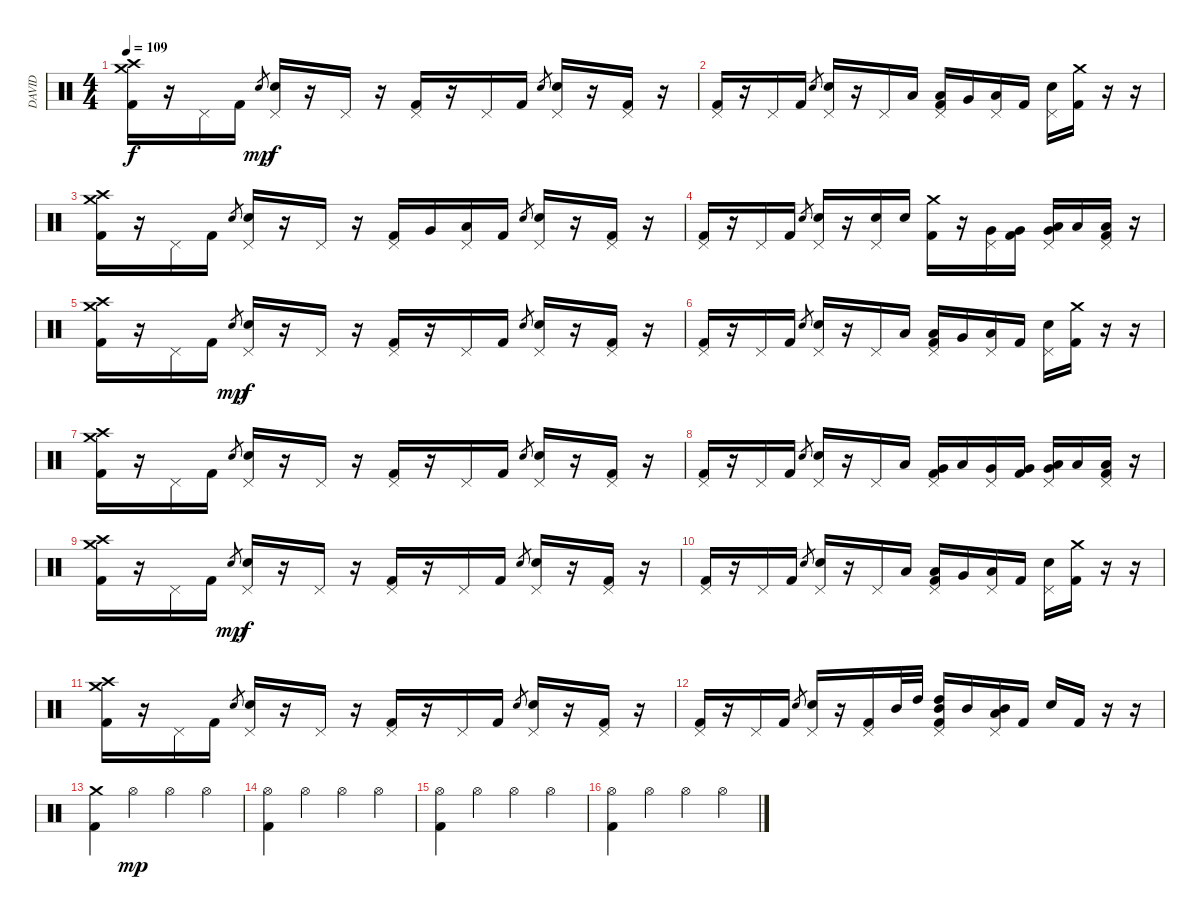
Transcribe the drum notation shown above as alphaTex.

\track ("DAVID" "DAVID") {instrument percussion}
\staff {score}
\articulation defaults
\ts (4 4)
\tempo 109
\clef neutral
\ks c
("Crash medium (hit)" "Crash high (hit)" "Kick (hit) 2").16{dy f} r.16 "Pedal Hi-Hat (hit)".16 "Kick (hit) 2".16 "Snare (hit) 2".8{gr dy mp} ("Pedal Hi-Hat (hit)" "Snare (hit) 2").16{dy f} r.16 "Pedal Hi-Hat (hit)".16 r.16 ("Pedal Hi-Hat (hit)" "Kick (hit) 2").16 r.16 "Pedal Hi-Hat (hit)".16 "Kick (hit) 2".16 "Snare (hit) 2".8{gr} ("Pedal Hi-Hat (hit)" "Snare (hit) 2").16 r.16 ("Pedal Hi-Hat (hit)" "Kick (hit) 2").16 r.16 |
("Pedal Hi-Hat (hit)" "Kick (hit) 2").16 r.16 "Pedal Hi-Hat (hit)".16 "Kick (hit) 2".16 "Snare (hit) 2".8{gr} ("Pedal Hi-Hat (hit)" "Snare (hit) 2").16 r.16 "Pedal Hi-Hat (hit)".16 "Low Tom (hit)".16 ("Pedal Hi-Hat (hit)" "Low Tom (hit)" "Kick (hit) 2").16 "Very Low Tom (hit)".16 ("Pedal Hi-Hat (hit)" "Low Floor Tom (hit)").16 "Kick (hit) 2".16 ("Pedal Hi-Hat (hit)" "Snare (hit) 2").16 ("Crash medium (hit)" "Kick (hit) 2").16 r.16 r.16 |
("Crash medium (hit)" "Crash high (hit)" "Kick (hit) 2").16 r.16 "Pedal Hi-Hat (hit)".16 "Kick (hit) 2".16 "Snare (hit) 2".8{gr} ("Pedal Hi-Hat (hit)" "Snare (hit) 2").16 r.16 "Pedal Hi-Hat (hit)".16 r.16 ("Pedal Hi-Hat (hit)" "Kick (hit) 2").16 "Very Low Tom (hit)".16 ("Pedal Hi-Hat (hit)" "Low Floor Tom (hit)").16 "Kick (hit) 2".16 "Snare (hit) 2".8{gr} ("Pedal Hi-Hat (hit)" "Snare (hit) 2").16 r.16 ("Pedal Hi-Hat (hit)" "Kick (hit) 2").16 r.16 |
("Pedal Hi-Hat (hit)" "Kick (hit) 2").16 r.16 "Pedal Hi-Hat (hit)".16 "Kick (hit) 2".16 "Snare (hit) 2".8{gr} ("Pedal Hi-Hat (hit)" "Snare (hit) 2").16 r.16 ("Pedal Hi-Hat (hit)" "Snare (hit) 2").16 "Snare (hit) 2".16 ("Crash medium (hit)" "Kick (hit) 2").16 r.16 ("Pedal Hi-Hat (hit)" "Very Low Tom (hit)").16 ("Very Low Tom (hit)" "Kick (hit) 2").16 ("Pedal Hi-Hat (hit)" "Very Low Tom (hit)" "Low Floor Tom (hit)").16 "Low Floor Tom (hit)".16 ("Pedal Hi-Hat (hit)" "Low Floor Tom (hit)" "Kick (hit) 2").16 r.16 |
("Crash medium (hit)" "Crash high (hit)" "Kick (hit) 2").16 r.16 "Pedal Hi-Hat (hit)".16 "Kick (hit) 2".16 "Snare (hit) 2".8{gr dy mp} ("Pedal Hi-Hat (hit)" "Snare (hit) 2").16{dy f} r.16 "Pedal Hi-Hat (hit)".16 r.16 ("Pedal Hi-Hat (hit)" "Kick (hit) 2").16 r.16 "Pedal Hi-Hat (hit)".16 "Kick (hit) 2".16 "Snare (hit) 2".8{gr} ("Pedal Hi-Hat (hit)" "Snare (hit) 2").16 r.16 ("Pedal Hi-Hat (hit)" "Kick (hit) 2").16 r.16 |
("Pedal Hi-Hat (hit)" "Kick (hit) 2").16 r.16 "Pedal Hi-Hat (hit)".16 "Kick (hit) 2".16 "Snare (hit) 2".8{gr} ("Pedal Hi-Hat (hit)" "Snare (hit) 2").16 r.16 "Pedal Hi-Hat (hit)".16 "Low Tom (hit)".16 ("Pedal Hi-Hat (hit)" "Low Tom (hit)" "Kick (hit) 2").16 "Very Low Tom (hit)".16 ("Pedal Hi-Hat (hit)" "Low Floor Tom (hit)").16 "Kick (hit) 2".16 ("Pedal Hi-Hat (hit)" "Snare (hit) 2").16 ("Crash medium (hit)" "Kick (hit) 2").16 r.16 r.16 |
("Crash medium (hit)" "Crash high (hit)" "Kick (hit) 2").16 r.16 "Pedal Hi-Hat (hit)".16 "Kick (hit) 2".16 "Snare (hit) 2".8{gr} ("Pedal Hi-Hat (hit)" "Snare (hit) 2").16 r.16 "Pedal Hi-Hat (hit)".16 r.16 ("Pedal Hi-Hat (hit)" "Kick (hit) 2").16 r.16 "Pedal Hi-Hat (hit)".16 "Kick (hit) 2".16 "Snare (hit) 2".8{gr} ("Pedal Hi-Hat (hit)" "Snare (hit) 2").16 r.16 ("Pedal Hi-Hat (hit)" "Kick (hit) 2").16 r.16 |
("Pedal Hi-Hat (hit)" "Kick (hit) 2").16 r.16 "Pedal Hi-Hat (hit)".16 "Kick (hit) 2".16 "Snare (hit) 2".8{gr} ("Pedal Hi-Hat (hit)" "Snare (hit) 2").16 r.16 "Pedal Hi-Hat (hit)".16 "Low Tom (hit)".16 ("Pedal Hi-Hat (hit)" "Very Low Tom (hit)" "Kick (hit) 2").16 "Low Tom (hit)".16 ("Pedal Hi-Hat (hit)" "Very Low Tom (hit)").16 ("Very Low Tom (hit)" "Kick (hit) 2").16 ("Pedal Hi-Hat (hit)" "Very Low Tom (hit)" "Low Floor Tom (hit)").16 "Low Floor Tom (hit)".16 ("Pedal Hi-Hat (hit)" "Low Floor Tom (hit)" "Kick (hit) 2").16 r.16 |
("Crash medium (hit)" "Crash high (hit)" "Kick (hit) 2").16 r.16 "Pedal Hi-Hat (hit)".16 "Kick (hit) 2".16 "Snare (hit) 2".8{gr dy mp} ("Pedal Hi-Hat (hit)" "Snare (hit) 2").16{dy f} r.16 "Pedal Hi-Hat (hit)".16 r.16 ("Pedal Hi-Hat (hit)" "Kick (hit) 2").16 r.16 "Pedal Hi-Hat (hit)".16 "Kick (hit) 2".16 "Snare (hit) 2".8{gr} ("Pedal Hi-Hat (hit)" "Snare (hit) 2").16 r.16 ("Pedal Hi-Hat (hit)" "Kick (hit) 2").16 r.16 |
("Pedal Hi-Hat (hit)" "Kick (hit) 2").16 r.16 "Pedal Hi-Hat (hit)".16 "Kick (hit) 2".16 "Snare (hit) 2".8{gr} ("Pedal Hi-Hat (hit)" "Snare (hit) 2").16 r.16 "Pedal Hi-Hat (hit)".16 "Low Tom (hit)".16 ("Pedal Hi-Hat (hit)" "Low Tom (hit)" "Kick (hit) 2").16 "Very Low Tom (hit)".16 ("Pedal Hi-Hat (hit)" "Low Floor Tom (hit)").16 "Kick (hit) 2".16 ("Pedal Hi-Hat (hit)" "Snare (hit) 2").16 ("Crash medium (hit)" "Kick (hit) 2").16 r.16 r.16 |
("Crash medium (hit)" "Crash high (hit)" "Kick (hit) 2").16 r.16 "Pedal Hi-Hat (hit)".16 "Kick (hit) 2".16 "Snare (hit) 2".8{gr} ("Pedal Hi-Hat (hit)" "Snare (hit) 2").16 r.16 "Pedal Hi-Hat (hit)".16 r.16 ("Pedal Hi-Hat (hit)" "Kick (hit) 2").16 r.16 "Pedal Hi-Hat (hit)".16 "Kick (hit) 2".16 "Snare (hit) 2".8{gr} ("Pedal Hi-Hat (hit)" "Snare (hit) 2").16 r.16 ("Pedal Hi-Hat (hit)" "Kick (hit) 2").16 r.16 |
("Pedal Hi-Hat (hit)" "Kick (hit) 2").16 r.16 "Pedal Hi-Hat (hit)".16 "Kick (hit) 2".16 "Snare (hit) 2".8{gr} ("Pedal Hi-Hat (hit)" "Snare (hit) 2").16 r.16 ("Pedal Hi-Hat (hit)" "Kick (hit) 2").16 "Mid Tom (hit)".32 "High Tom (hit)".32 ("Pedal Hi-Hat (hit)" "High Tom (hit)" "Mid Tom (hit)" "Kick (hit) 2").16 "Mid Tom (hit)".16 ("Pedal Hi-Hat (hit)" "Low Tom (hit)" "Mid Tom (hit)").16 "Kick (hit) 2".16 "Snare (hit) 2".16 "Kick (hit) 2".16 r.16 r.16 |
("Crash medium (hit)" "Kick (hit) 2").4 "Hi-Hat (open)".4{dy mp} "Hi-Hat (open)".4 "Hi-Hat (open)".4 |
("Hi-Hat (open)" "Kick (hit) 2").4 "Hi-Hat (open)".4 "Hi-Hat (open)".4 "Hi-Hat (open)".4 |
("Hi-Hat (open)" "Kick (hit) 2").4 "Hi-Hat (open)".4 "Hi-Hat (open)".4 "Hi-Hat (open)".4 |
("Hi-Hat (open)" "Kick (hit) 2").4 "Hi-Hat (open)".4 "Hi-Hat (open)".4 "Hi-Hat (open)".4
